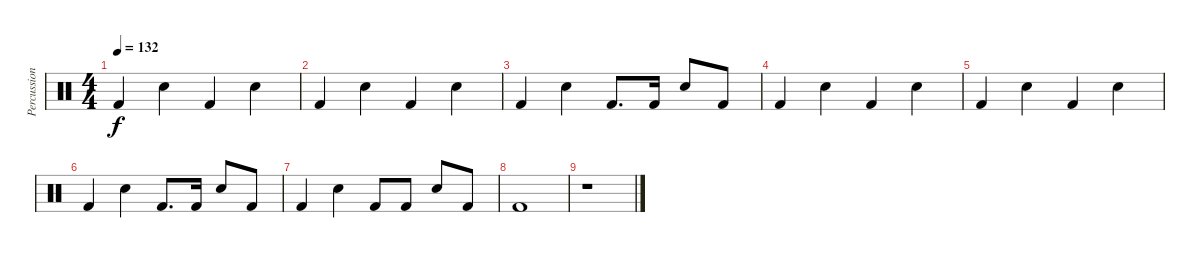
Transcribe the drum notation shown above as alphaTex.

\track ("Percussion" "Percussion") {instrument percussion}
\staff {score}
\articulation defaults
\ts (4 4)
\tempo 132
\clef neutral
\ks c "Kick (hit) 2".4{dy f} "Snare (hit) 2".4 "Kick (hit) 2".4 "Snare (hit) 2".4
|
"Kick (hit) 2".4 "Snare (hit) 2".4 "Kick (hit) 2".4 "Snare (hit) 2".4 |
"Kick (hit) 2".4 "Snare (hit) 2".4 "Kick (hit) 2".8{d} "Kick (hit) 2".16 "Snare (hit) 2".8 "Kick (hit) 2".8 |
"Kick (hit) 2".4 "Snare (hit) 2".4 "Kick (hit) 2".4 "Snare (hit) 2".4 |
"Kick (hit) 2".4 "Snare (hit) 2".4 "Kick (hit) 2".4 "Snare (hit) 2".4 |
"Kick (hit) 2".4 "Snare (hit) 2".4 "Kick (hit) 2".8{d} "Kick (hit) 2".16 "Snare (hit) 2".8 "Kick (hit) 2".8 |
"Kick (hit) 2".4 "Snare (hit) 2".4 "Kick (hit) 2".8 "Kick (hit) 2".8 "Snare (hit) 2".8 "Kick (hit) 2".8 |
"Kick (hit) 2".1 |
r.1
